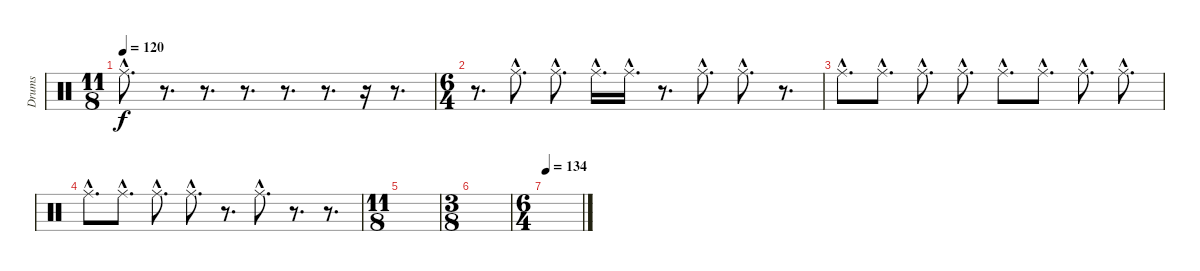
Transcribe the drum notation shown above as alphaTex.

\track ("Drums" "Drums") {instrument percussion}
\staff {score}
\articulation defaults
\ts (11 8)
\tempo 120
\clef neutral
\ks c "Ride (middle)"{hac}.8{d dy f}
r.8{d} r.8{d} r.8{d} r.8{d} r.8{d} r.16 r.8{d} |
\ts (6 4)
r.8{d} "Ride (middle)"{hac}.8{d} "Ride (middle)"{hac}.8{d} "Ride (middle)"{hac}.16{d} "Ride (middle)"{hac}.16{d} r.8{d} "Ride (middle)"{hac}.8{d} "Ride (middle)"{hac}.8{d} r.8{d} |
"Ride (middle)"{hac}.8{d} "Ride (middle)"{hac}.8{d} "Ride (middle)"{hac}.8{d} "Ride (middle)"{hac}.8{d} "Ride (middle)"{hac}.8{d} "Ride (middle)"{hac}.8{d} "Ride (middle)"{hac}.8{d} "Ride (middle)"{hac}.8{d} |
"Ride (middle)"{hac}.8{d} "Ride (middle)"{hac}.8{d} "Ride (middle)"{hac}.8{d} "Ride (middle)"{hac}.8{d} r.8{d} "Ride (middle)"{hac}.8{d} r.8{d} r.8{d} |
\ts (11 8)
|
\ts (3 8)
|
\ts (6 4)
\section ("" "")
\tempo 134
